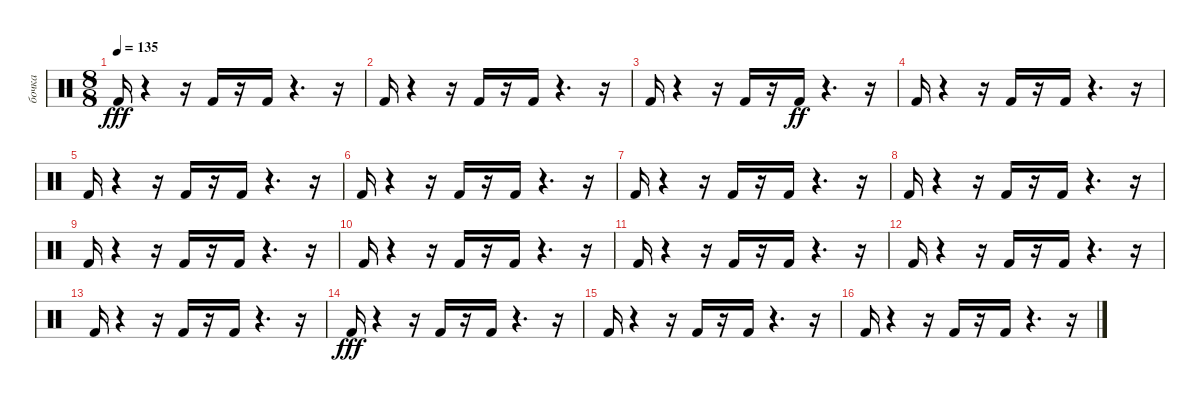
\track ("бочка" "бочка") {instrument percussion}
\staff {score}
\articulation defaults
\ts (8 8)
\tempo 135
\clef neutral
\ks c "Kick (hit) 2".16{dy fff}
r.4 r.16 "Kick (hit) 2".16 r.16 "Kick (hit) 2".16 r.4{d} r.16 |
"Kick (hit) 2".16 r.4 r.16 "Kick (hit) 2".16 r.16 "Kick (hit) 2".16 r.4{d} r.16 |
"Kick (hit) 2".16 r.4 r.16 "Kick (hit) 2".16 r.16 "Kick (hit) 2".16{dy ff} r.4{d} r.16 |
"Kick (hit) 2".16 r.4 r.16 "Kick (hit) 2".16 r.16 "Kick (hit) 2".16 r.4{d} r.16 |
"Kick (hit) 2".16 r.4 r.16 "Kick (hit) 2".16 r.16 "Kick (hit) 2".16 r.4{d} r.16 |
"Kick (hit) 2".16 r.4 r.16 "Kick (hit) 2".16 r.16 "Kick (hit) 2".16 r.4{d} r.16 |
"Kick (hit) 2".16 r.4 r.16 "Kick (hit) 2".16 r.16 "Kick (hit) 2".16 r.4{d} r.16 |
"Kick (hit) 2".16 r.4 r.16 "Kick (hit) 2".16 r.16 "Kick (hit) 2".16 r.4{d} r.16 |
"Kick (hit) 2".16 r.4 r.16 "Kick (hit) 2".16 r.16 "Kick (hit) 2".16 r.4{d} r.16 |
"Kick (hit) 2".16 r.4 r.16 "Kick (hit) 2".16 r.16 "Kick (hit) 2".16 r.4{d} r.16 |
"Kick (hit) 2".16 r.4 r.16 "Kick (hit) 2".16 r.16 "Kick (hit) 2".16 r.4{d} r.16 |
"Kick (hit) 2".16 r.4 r.16 "Kick (hit) 2".16 r.16 "Kick (hit) 2".16 r.4{d} r.16 |
"Kick (hit) 2".16 r.4 r.16 "Kick (hit) 2".16 r.16 "Kick (hit) 2".16 r.4{d} r.16 |
"Kick (hit) 2".16{dy fff} r.4 r.16 "Kick (hit) 2".16 r.16 "Kick (hit) 2".16 r.4{d} r.16 |
"Kick (hit) 2".16 r.4 r.16 "Kick (hit) 2".16 r.16 "Kick (hit) 2".16 r.4{d} r.16 |
"Kick (hit) 2".16 r.4 r.16 "Kick (hit) 2".16 r.16 "Kick (hit) 2".16 r.4{d} r.16
